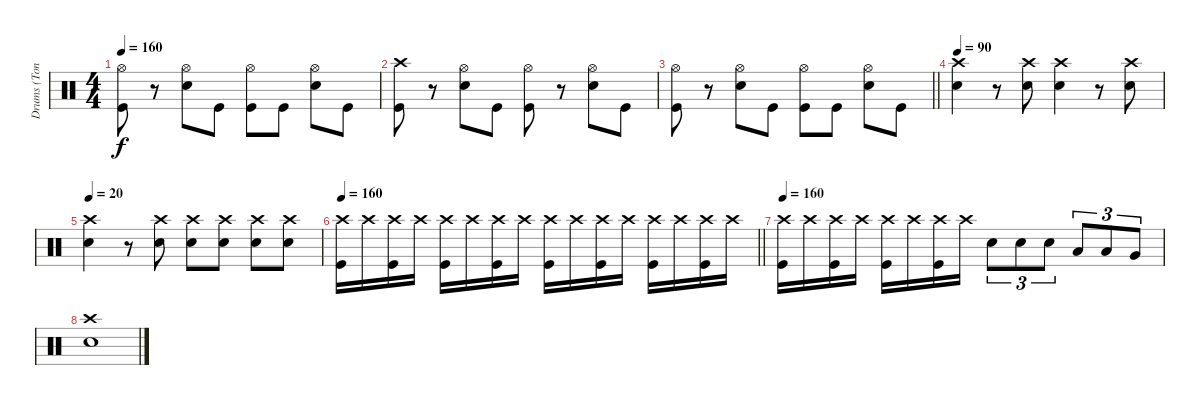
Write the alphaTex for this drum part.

\track ("Drums (Tony)" "Drums (Ton") {instrument percussion}
\staff {score}
\articulation defaults
\ts (4 4)
\tempo 160
\clef neutral
\ks c
("Hi-Hat (open)" "Kick (hit)").8{dy f} r.8 ("Hi-Hat (open)" "Snare (hit) 2").8 "Kick (hit)".8 ("Hi-Hat (open)" "Kick (hit)").8 "Kick (hit)".8 ("Hi-Hat (open)" "Snare (hit) 2").8 "Kick (hit)".8 |
("Crash high (hit)" "Kick (hit)").8 r.8 ("Hi-Hat (open)" "Snare (hit) 2").8 "Kick (hit)".8 ("Hi-Hat (open)" "Kick (hit)").8 r.8 ("Hi-Hat (open)" "Snare (hit) 2").8 "Kick (hit)".8 |
\barLineRight lightlight
("Hi-Hat (open)" "Kick (hit)").8 r.8 ("Hi-Hat (open)" "Snare (hit) 2").8 "Kick (hit)".8 ("Hi-Hat (open)" "Kick (hit)").8 "Kick (hit)".8 ("Hi-Hat (open)" "Snare (hit) 2").8 "Kick (hit)".8 |
\tempo 90
("Crash high (hit)" "Snare (hit) 2").4 r.8 ("Crash high (hit)" "Snare (hit) 2").8 ("Crash high (hit)" "Snare (hit) 2").4 r.8 ("Crash high (hit)" "Snare (hit) 2").8 |
\tempo 20
("Crash high (hit)" "Snare (hit) 2").4 r.8 ("Crash high (hit)" "Snare (hit) 2").8 ("Crash high (hit)" "Snare (hit) 2").8 ("Crash high (hit)" "Snare (hit) 2").8 ("Crash high (hit)" "Snare (hit) 2").8 ("Crash high (hit)" "Snare (hit) 2").8 |
\tempo 160
\barLineRight lightlight
("Crash high (hit)" "Kick (hit)").16 "Crash high (hit)".16 ("Crash high (hit)" "Kick (hit)").16 "Crash high (hit)".16 ("Crash high (hit)" "Kick (hit)").16 "Crash high (hit)".16 ("Crash high (hit)" "Kick (hit)").16 "Crash high (hit)".16 ("Crash high (hit)" "Kick (hit)").16 "Crash high (hit)".16 ("Crash high (hit)" "Kick (hit)").16 "Crash high (hit)".16 ("Crash high (hit)" "Kick (hit)").16 "Crash high (hit)".16 ("Crash high (hit)" "Kick (hit)").16 "Crash high (hit)".16 |
\tempo 160
("Crash high (hit)" "Kick (hit)").16 "Crash high (hit)".16 ("Crash high (hit)" "Kick (hit)").16 "Crash high (hit)".16 ("Crash high (hit)" "Kick (hit)").16 "Crash high (hit)".16 ("Crash high (hit)" "Kick (hit)").16 "Crash high (hit)".16 "Snare (hit) 2".8{tu (3 2)} "Snare (hit) 2".8{tu (3 2)} "Snare (hit) 2".8{tu (3 2)} "Low Tom (hit)".8{tu (3 2)} "Low Tom (hit)".8{tu (3 2)} "Very Low Tom (hit)".8{tu (3 2)} |
("Crash high (hit)" "Snare (hit) 2").1
